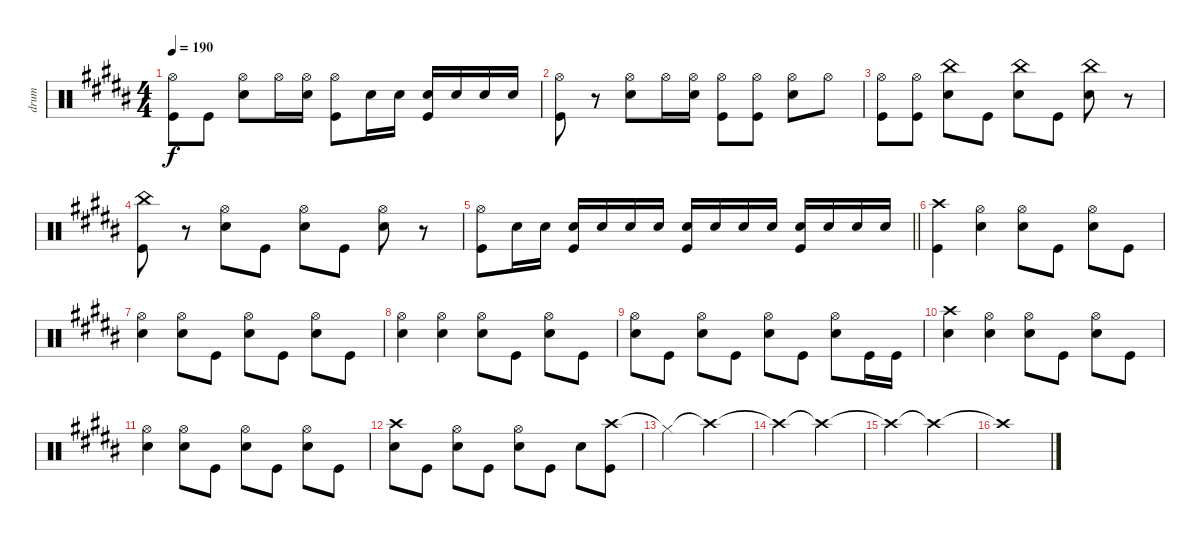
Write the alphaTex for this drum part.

\track ("drum" "drum") {instrument percussion}
\staff {score}
\articulation defaults
\ts (4 4)
\tempo 190
\clef neutral
\ks b
("Hi-Hat (open)" "Kick (hit)").8{dy f} "Kick (hit)".8 ("Hi-Hat (open)" "Snare (hit) 2").8 "Hi-Hat (open)".16 ("Hi-Hat (open)" "Snare (hit) 2").16 ("Hi-Hat (open)" "Kick (hit)").8 "Snare (hit) 2".16 "Snare (hit) 2".16 ("Snare (hit) 2" "Kick (hit)").16 "Snare (hit) 2".16 "Snare (hit) 2".16 "Snare (hit) 2".16 |
("Hi-Hat (open)" "Kick (hit)").8 r.8 ("Hi-Hat (open)" "Snare (hit) 2").8 "Hi-Hat (open)".16 ("Hi-Hat (open)" "Snare (hit) 2").16 ("Hi-Hat (open)" "Kick (hit)").8 ("Hi-Hat (open)" "Kick (hit)").8 ("Hi-Hat (open)" "Snare (hit) 2").8 "Hi-Hat (open)".8 |
("Hi-Hat (open)" "Kick (hit)").8 ("Hi-Hat (open)" "Kick (hit)").8 ("China (hit)" "Snare (hit) 2").8 "Kick (hit)".8 ("China (hit)" "Snare (hit) 2").8 "Kick (hit)".8 ("China (hit)" "Snare (hit) 2").8 r.8 |
("China (hit)" "Kick (hit)").8 r.8 ("Hi-Hat (open)" "Snare (hit) 2").8 "Kick (hit)".8 ("Hi-Hat (open)" "Snare (hit) 2").8 "Kick (hit)".8 ("Hi-Hat (open)" "Snare (hit) 2").8 r.8 |
\barLineRight lightlight
("Hi-Hat (open)" "Kick (hit)").8 "Snare (hit) 2".16 "Snare (hit) 2".16 ("Snare (hit) 2" "Kick (hit)").16 "Snare (hit) 2".16 "Snare (hit) 2".16 "Snare (hit) 2".16 ("Snare (hit) 2" "Kick (hit)").16 "Snare (hit) 2".16 "Snare (hit) 2".16 "Snare (hit) 2".16 ("Snare (hit) 2" "Kick (hit)").16 "Snare (hit) 2".16 "Snare (hit) 2".16 "Snare (hit) 2".16 |
("Crash high (hit)" "Kick (hit)").4 ("Hi-Hat (open)" "Snare (hit) 2").4 ("Hi-Hat (open)" "Snare (hit) 2").8 "Kick (hit)".8 ("Hi-Hat (open)" "Snare (hit) 2").8 "Kick (hit)".8 |
("Hi-Hat (open)" "Snare (hit) 2").4 ("Hi-Hat (open)" "Snare (hit) 2").8 "Kick (hit)".8 ("Hi-Hat (open)" "Snare (hit) 2").8 "Kick (hit)".8 ("Hi-Hat (open)" "Snare (hit) 2").8 "Kick (hit)".8 |
("Hi-Hat (open)" "Snare (hit) 2").4 ("Hi-Hat (open)" "Snare (hit) 2").4 ("Hi-Hat (open)" "Snare (hit) 2").8 "Kick (hit)".8 ("Hi-Hat (open)" "Snare (hit) 2").8 "Kick (hit)".8 |
("Hi-Hat (open)" "Snare (hit) 2").8 "Kick (hit)".8 ("Hi-Hat (open)" "Snare (hit) 2").8 "Kick (hit)".8 ("Hi-Hat (open)" "Snare (hit) 2").8 "Kick (hit)".8 ("Hi-Hat (open)" "Snare (hit) 2").8 "Kick (hit)".16 "Kick (hit)".16 |
("Crash high (hit)" "Snare (hit) 2").4 ("Hi-Hat (open)" "Snare (hit) 2").4 ("Hi-Hat (open)" "Snare (hit) 2").8 "Kick (hit)".8 ("Hi-Hat (open)" "Snare (hit) 2").8 "Kick (hit)".8 |
("Hi-Hat (open)" "Snare (hit) 2").4 ("Hi-Hat (open)" "Snare (hit) 2").8 "Kick (hit)".8 ("Hi-Hat (open)" "Snare (hit) 2").8 "Kick (hit)".8 ("Hi-Hat (open)" "Snare (hit) 2").8 "Kick (hit)".8 |
("Crash high (hit)" "Snare (hit) 2").8 "Kick (hit)".8 ("Hi-Hat (open)" "Snare (hit) 2").8 "Kick (hit)".8 ("Hi-Hat (open)" "Snare (hit) 2").8 "Kick (hit)".8 "Snare (hit) 2".8 ("Crash high (hit)" "Kick (hit)").8 |
"Hi-Hat (closed)"{t}.2 "Crash high (hit)"{t}.2 |
"Crash high (hit)"{t}.2 "Crash high (hit)"{t}.2 |
"Crash high (hit)"{t}.2 "Crash high (hit)"{t}.2 |
"Crash high (hit)"{t}.1
